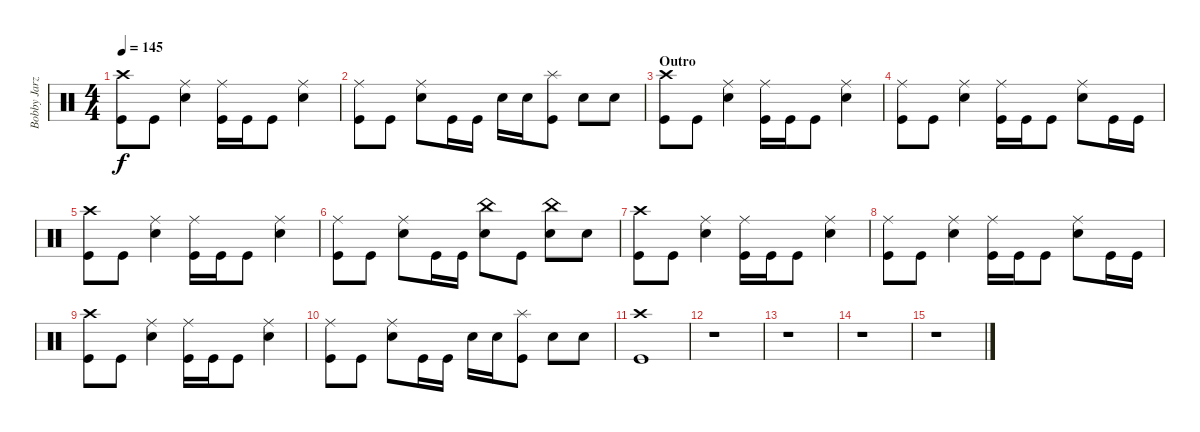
\track ("Bobby Jarzombek" "Bobby Jarz") {instrument percussion}
\staff {score}
\articulation defaults
\ts (4 4)
\tempo 145
\clef neutral
\ks c
("Crash high (hit)" "Kick (hit)").8{dy f} "Kick (hit)".8 ("Ride (middle)" "Electric Snare (hit)").4 ("Ride (middle)" "Kick (hit)").16 "Kick (hit)".16 "Kick (hit)".8 ("Ride (middle)" "Electric Snare (hit)").4 |
("Ride (middle)" "Kick (hit)").8 "Kick (hit)".8 ("Ride (middle)" "Electric Snare (hit)").8 "Kick (hit)".16 "Kick (hit)".16 "Electric Snare (hit)".16 "Electric Snare (hit)".16 ("Splash (hit)" "Kick (hit)").8 "Electric Snare (hit)".8 "Electric Snare (hit)".8 |
\section ("" "Outro")
("Crash high (hit)" "Kick (hit)").8 "Kick (hit)".8 ("Ride (middle)" "Electric Snare (hit)").4 ("Ride (middle)" "Kick (hit)").16 "Kick (hit)".16 "Kick (hit)".8 ("Ride (middle)" "Electric Snare (hit)").4 |
("Ride (middle)" "Kick (hit)").8 "Kick (hit)".8 ("Ride (middle)" "Electric Snare (hit)").4 ("Ride (middle)" "Kick (hit)").16 "Kick (hit)".16 "Kick (hit)".8 ("Ride (middle)" "Electric Snare (hit)").8 "Kick (hit)".16 "Kick (hit)".16 |
("Crash high (hit)" "Kick (hit)").8 "Kick (hit)".8 ("Ride (middle)" "Electric Snare (hit)").4 ("Ride (middle)" "Kick (hit)").16 "Kick (hit)".16 "Kick (hit)".8 ("Ride (middle)" "Electric Snare (hit)").4 |
("Ride (middle)" "Kick (hit)").8 "Kick (hit)".8 ("Ride (middle)" "Electric Snare (hit)").8 "Kick (hit)".16 "Kick (hit)".16 ("China (hit)" "Electric Snare (hit)").8 "Kick (hit)".8 ("China (hit)" "Electric Snare (hit)").8 "Electric Snare (hit)".8 |
("Crash high (hit)" "Kick (hit)").8 "Kick (hit)".8 ("Ride (middle)" "Electric Snare (hit)").4 ("Ride (middle)" "Kick (hit)").16 "Kick (hit)".16 "Kick (hit)".8 ("Ride (middle)" "Electric Snare (hit)").4 |
("Ride (middle)" "Kick (hit)").8 "Kick (hit)".8 ("Ride (middle)" "Electric Snare (hit)").4 ("Ride (middle)" "Kick (hit)").16 "Kick (hit)".16 "Kick (hit)".8 ("Ride (middle)" "Electric Snare (hit)").8 "Kick (hit)".16 "Kick (hit)".16 |
("Crash high (hit)" "Kick (hit)").8 "Kick (hit)".8 ("Ride (middle)" "Electric Snare (hit)").4 ("Ride (middle)" "Kick (hit)").16 "Kick (hit)".16 "Kick (hit)".8 ("Ride (middle)" "Electric Snare (hit)").4 |
("Ride (middle)" "Kick (hit)").8 "Kick (hit)".8 ("Ride (middle)" "Electric Snare (hit)").8 "Kick (hit)".16 "Kick (hit)".16 "Electric Snare (hit)".16 "Electric Snare (hit)".16 ("Splash (hit)" "Kick (hit)").8 "Electric Snare (hit)".8 "Electric Snare (hit)".8 |
("Crash high (hit)" "Kick (hit)").1 |
r.1 |
r.1 |
r.1 |
r.1
